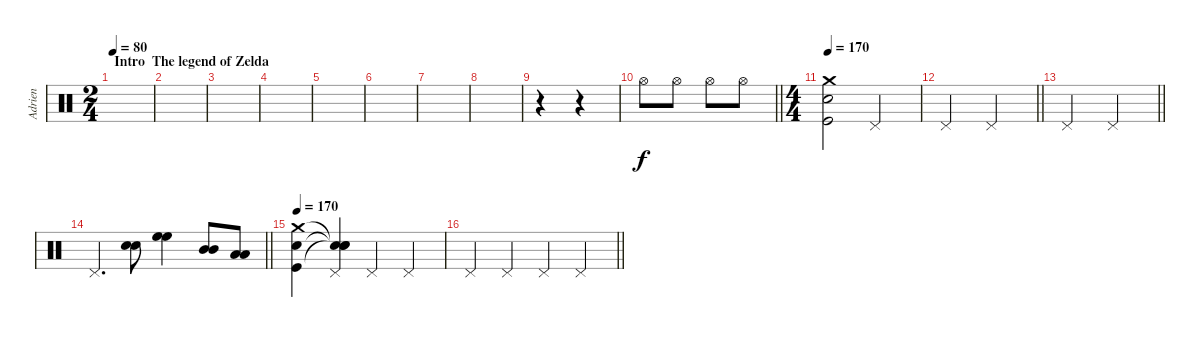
\track ("Adrien" "Adrien") {instrument percussion}
\staff {score}
\articulation defaults
\ts (2 4)
\section ("" "Intro  The legend of Zelda ")
\tempo 80
\clef neutral
\ks c
|
|
|
|
|
|
|
|
r.4 r.4 |
\barLineRight lightlight "Hi-Hat (open)".8 "Hi-Hat (open)".8 "Hi-Hat (open)".8 "Hi-Hat (open)".8
|
\ts (4 4)
\tempo 170
("Kick (hit)" "Snare (hit) 2" "Crash medium (hit)").2 "Pedal Hi-Hat (hit)".2 |
\barLineRight lightlight "Pedal Hi-Hat (hit)".2 "Pedal Hi-Hat (hit)".2
|
\barLineRight lightlight "Pedal Hi-Hat (hit)".2 "Pedal Hi-Hat (hit)".2
|
\barLineRight lightlight "Pedal Hi-Hat (hit)".4{d}
("Snare (hit) 2" "Snare (hit) 2").8 ("High Floor Tom (hit)" "High Floor Tom (hit)").4 ("Mid Tom (hit)" "Mid Tom (hit)").8 ("Low Tom (hit)" "Low Tom (hit)").8 |
\tempo 170
("Kick (hit)" "Snare (hit) 2" "Crash medium (hit)").4 ("Snare (hit)"{t} "Snare (hit)"{t} "Snare (hit)"{t} "Pedal Hi-Hat (hit)").4 "Pedal Hi-Hat (hit)".4 "Pedal Hi-Hat (hit)".4 |
\barLineRight lightlight "Pedal Hi-Hat (hit)".4 "Pedal Hi-Hat (hit)".4 "Pedal Hi-Hat (hit)".4 "Pedal Hi-Hat (hit)".4
